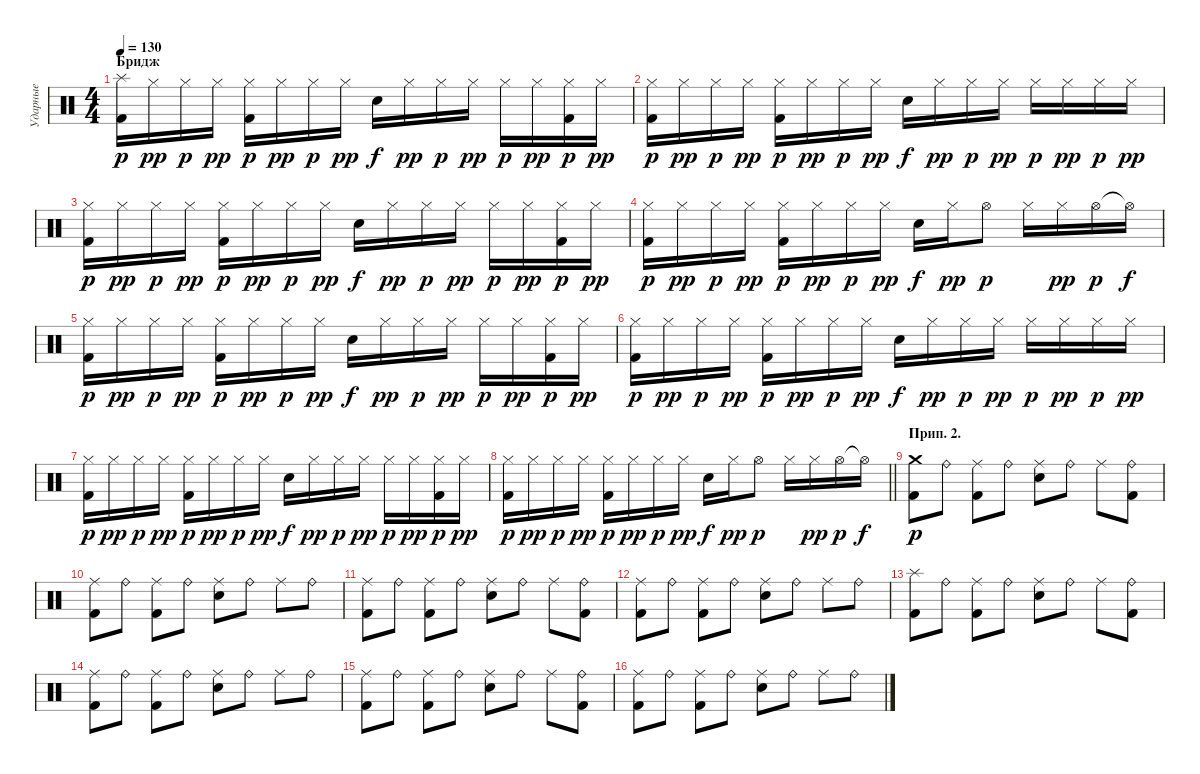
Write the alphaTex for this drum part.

\track ("Ударные" "Ударные") {instrument percussion}
\staff {score}
\articulation defaults
\ts (4 4)
\section ("" "Бридж")
\tempo 130
\clef neutral
\ks c
("Splash (hit)" "Kick (hit) 2").16{dy p} "Hi-Hat (closed)".16{dy pp} "Hi-Hat (closed)".16{dy p} "Hi-Hat (closed)".16{dy pp} ("Hi-Hat (closed)" "Kick (hit) 2").16{dy p} "Hi-Hat (closed)".16{dy pp} "Hi-Hat (closed)".16{dy p} "Hi-Hat (closed)".16{dy pp} "Snare (hit) 2".16{dy f} "Hi-Hat (closed)".16{dy pp} "Hi-Hat (closed)".16{dy p} "Hi-Hat (closed)".16{dy pp} "Hi-Hat (closed)".16{dy p} "Hi-Hat (closed)".16{dy pp} ("Hi-Hat (closed)" "Kick (hit) 2").16{dy p} "Hi-Hat (closed)".16{dy pp} |
("Hi-Hat (closed)" "Kick (hit) 2").16{dy p} "Hi-Hat (closed)".16{dy pp} "Hi-Hat (closed)".16{dy p} "Hi-Hat (closed)".16{dy pp} ("Hi-Hat (closed)" "Kick (hit) 2").16{dy p} "Hi-Hat (closed)".16{dy pp} "Hi-Hat (closed)".16{dy p} "Hi-Hat (closed)".16{dy pp} "Snare (hit) 2".16{dy f} "Hi-Hat (closed)".16{dy pp} "Hi-Hat (closed)".16{dy p} "Hi-Hat (closed)".16{dy pp} "Hi-Hat (closed)".16{dy p} "Hi-Hat (closed)".16{dy pp} "Hi-Hat (closed)".16{dy p} "Hi-Hat (closed)".16{dy pp} |
("Hi-Hat (closed)" "Kick (hit) 2").16{dy p} "Hi-Hat (closed)".16{dy pp} "Hi-Hat (closed)".16{dy p} "Hi-Hat (closed)".16{dy pp} ("Hi-Hat (closed)" "Kick (hit) 2").16{dy p} "Hi-Hat (closed)".16{dy pp} "Hi-Hat (closed)".16{dy p} "Hi-Hat (closed)".16{dy pp} "Snare (hit) 2".16{dy f} "Hi-Hat (closed)".16{dy pp} "Hi-Hat (closed)".16{dy p} "Hi-Hat (closed)".16{dy pp} "Hi-Hat (closed)".16{dy p} "Hi-Hat (closed)".16{dy pp} ("Hi-Hat (closed)" "Kick (hit) 2").16{dy p} "Hi-Hat (closed)".16{dy pp} |
("Hi-Hat (closed)" "Kick (hit) 2").16{dy p} "Hi-Hat (closed)".16{dy pp} "Hi-Hat (closed)".16{dy p} "Hi-Hat (closed)".16{dy pp} ("Hi-Hat (closed)" "Kick (hit) 2").16{dy p} "Hi-Hat (closed)".16{dy pp} "Hi-Hat (closed)".16{dy p} "Hi-Hat (closed)".16{dy pp} "Snare (hit) 2".16{dy f} "Hi-Hat (closed)".16{dy pp} "Hi-Hat (open)".8{dy p} "Hi-Hat (closed)".16 "Hi-Hat (closed)".16{dy pp} "Hi-Hat (open)".16{dy p} "Hi-Hat (open)"{t}.16{dy f} |
("Hi-Hat (closed)" "Kick (hit) 2").16{dy p} "Hi-Hat (closed)".16{dy pp} "Hi-Hat (closed)".16{dy p} "Hi-Hat (closed)".16{dy pp} ("Hi-Hat (closed)" "Kick (hit) 2").16{dy p} "Hi-Hat (closed)".16{dy pp} "Hi-Hat (closed)".16{dy p} "Hi-Hat (closed)".16{dy pp} "Snare (hit) 2".16{dy f} "Hi-Hat (closed)".16{dy pp} "Hi-Hat (closed)".16{dy p} "Hi-Hat (closed)".16{dy pp} "Hi-Hat (closed)".16{dy p} "Hi-Hat (closed)".16{dy pp} ("Hi-Hat (closed)" "Kick (hit) 2").16{dy p} "Hi-Hat (closed)".16{dy pp} |
("Hi-Hat (closed)" "Kick (hit) 2").16{dy p} "Hi-Hat (closed)".16{dy pp} "Hi-Hat (closed)".16{dy p} "Hi-Hat (closed)".16{dy pp} ("Hi-Hat (closed)" "Kick (hit) 2").16{dy p} "Hi-Hat (closed)".16{dy pp} "Hi-Hat (closed)".16{dy p} "Hi-Hat (closed)".16{dy pp} "Snare (hit) 2".16{dy f} "Hi-Hat (closed)".16{dy pp} "Hi-Hat (closed)".16{dy p} "Hi-Hat (closed)".16{dy pp} "Hi-Hat (closed)".16{dy p} "Hi-Hat (closed)".16{dy pp} "Hi-Hat (closed)".16{dy p} "Hi-Hat (closed)".16{dy pp} |
("Hi-Hat (closed)" "Kick (hit) 2").16{dy p} "Hi-Hat (closed)".16{dy pp} "Hi-Hat (closed)".16{dy p} "Hi-Hat (closed)".16{dy pp} ("Hi-Hat (closed)" "Kick (hit) 2").16{dy p} "Hi-Hat (closed)".16{dy pp} "Hi-Hat (closed)".16{dy p} "Hi-Hat (closed)".16{dy pp} "Snare (hit) 2".16{dy f} "Hi-Hat (closed)".16{dy pp} "Hi-Hat (closed)".16{dy p} "Hi-Hat (closed)".16{dy pp} "Hi-Hat (closed)".16{dy p} "Hi-Hat (closed)".16{dy pp} ("Hi-Hat (closed)" "Kick (hit) 2").16{dy p} "Hi-Hat (closed)".16{dy pp} |
\barLineRight lightlight
("Hi-Hat (closed)" "Kick (hit) 2").16{dy p} "Hi-Hat (closed)".16{dy pp} "Hi-Hat (closed)".16{dy p} "Hi-Hat (closed)".16{dy pp} ("Hi-Hat (closed)" "Kick (hit) 2").16{dy p} "Hi-Hat (closed)".16{dy pp} "Hi-Hat (closed)".16{dy p} "Hi-Hat (closed)".16{dy pp} "Snare (hit) 2".16{dy f} "Hi-Hat (closed)".16{dy pp} "Hi-Hat (open)".8{dy p} "Hi-Hat (closed)".16 "Hi-Hat (closed)".16{dy pp} "Hi-Hat (open)".16{dy p} "Hi-Hat (open)"{t}.16{dy f} |
\section ("" "Прип. 2.")
("Crash medium (hit)" "Kick (hit) 2").8{dy p} "Ride (bell)".8 ("Ride (middle)" "Kick (hit) 2").8 "Ride (bell)".8 ("Ride (middle)" "Snare (hit) 2").8 "Ride (bell)".8 "Ride (middle)".8 ("Ride (bell)" "Kick (hit) 2").8 |
("Ride (middle)" "Kick (hit) 2").8 "Ride (bell)".8 ("Ride (middle)" "Kick (hit) 2").8 "Ride (bell)".8 ("Ride (middle)" "Snare (hit) 2").8 "Ride (bell)".8 "Ride (middle)".8 "Ride (bell)".8 |
("Ride (middle)" "Kick (hit) 2").8 "Ride (bell)".8 ("Ride (middle)" "Kick (hit) 2").8 "Ride (bell)".8 ("Ride (middle)" "Snare (hit) 2").8 "Ride (bell)".8 "Ride (middle)".8 ("Ride (bell)" "Kick (hit) 2").8 |
("Ride (middle)" "Kick (hit) 2").8 "Ride (bell)".8 ("Ride (middle)" "Kick (hit) 2").8 "Ride (bell)".8 ("Ride (middle)" "Snare (hit) 2").8 "Ride (bell)".8 "Ride (middle)".8 "Ride (bell)".8 |
("Splash (hit)" "Kick (hit) 2").8 "Ride (bell)".8 ("Ride (middle)" "Kick (hit) 2").8 "Ride (bell)".8 ("Ride (middle)" "Snare (hit) 2").8 "Ride (bell)".8 "Ride (middle)".8 ("Ride (bell)" "Kick (hit) 2").8 |
("Ride (middle)" "Kick (hit) 2").8 "Ride (bell)".8 ("Ride (middle)" "Kick (hit) 2").8 "Ride (bell)".8 ("Ride (middle)" "Snare (hit) 2").8 "Ride (bell)".8 "Ride (middle)".8 "Ride (bell)".8 |
("Ride (middle)" "Kick (hit) 2").8 "Ride (bell)".8 ("Ride (middle)" "Kick (hit) 2").8 "Ride (bell)".8 ("Ride (middle)" "Snare (hit) 2").8 "Ride (bell)".8 "Ride (middle)".8 ("Ride (bell)" "Kick (hit) 2").8 |
("Ride (middle)" "Kick (hit) 2").8 "Ride (bell)".8 ("Ride (middle)" "Kick (hit) 2").8 "Ride (bell)".8 ("Ride (middle)" "Snare (hit) 2").8 "Ride (bell)".8 "Ride (middle)".8 "Ride (bell)".8
